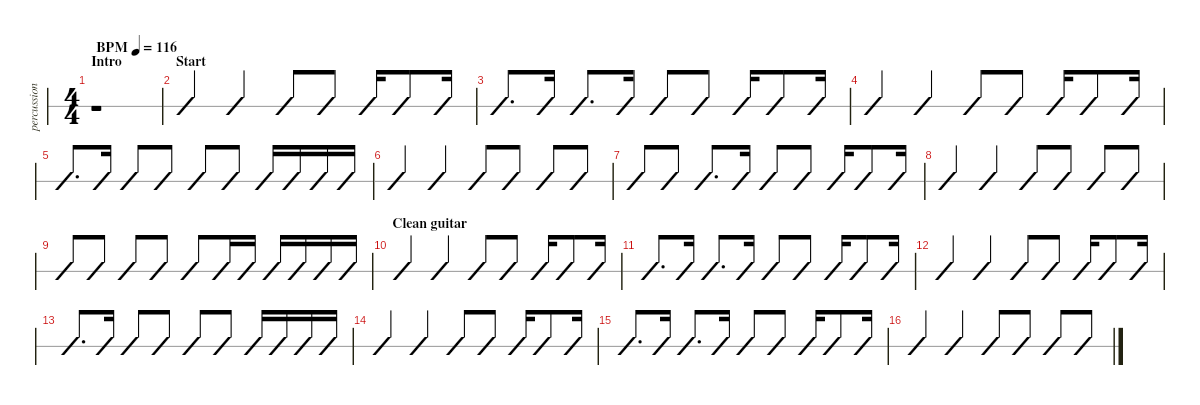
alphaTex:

\defaultSystemsLayout 4
\hideDynamics
\bracketExtendMode nobrackets
\track ("Drums" "percussion") {instrument percussion}
\staff {slash}
\articulation defaults
\voice
\ts (4 4)
\beaming (8 2 2 2 2)
\section ("" "Intro")
\tempo (116 "BPM")
\clef neutral
\ks c
r.1{dy f} |
\section ("" "Start")
("Crash medium (hit)" "Kick (hit) 2" "Crash high (hit)").4 ("Crash medium (hit)" "Snare (hit) 2").4 "Crash medium (hit)".8 "Kick (hit) 2".8 ("Crash medium (hit)" "Snare (hit) 2").16 "Kick (hit) 2".8 "Kick (hit) 2".16 |
("Crash medium (hit)" "Kick (hit) 2").8{d} "Kick (hit) 2".16 ("Crash medium (hit)" "Snare (hit) 2").8{d} "Snare (hit) 2".16 "Crash medium (hit)".8 "Kick (hit) 2".8 ("Crash medium (hit)" "Snare (hit) 2").16 "Kick (hit) 2".8 "Kick (hit) 2".16 |
("Crash medium (hit)" "Kick (hit) 2" "Crash high (hit)").4 ("Crash medium (hit)" "Snare (hit) 2").4 "Crash medium (hit)".8 "Kick (hit) 2".8 ("Crash medium (hit)" "Snare (hit) 2").16 "Kick (hit) 2".8 "Kick (hit) 2".16 |
("Crash medium (hit)" "Kick (hit) 2").8{d} "Kick (hit) 2".16 ("Crash medium (hit)" "Snare (hit) 2").8 ("Kick (hit) 2" "Splash (hit)").8 "Crash medium (hit)".8 "Kick (hit) 2".8 ("Crash medium (hit)" "Snare (hit) 2").16 "Kick (hit) 2".16 "Snare (hit) 2".16 "Snare (hit) 2".16 |
("Crash medium (hit)" "Kick (hit) 2").4 ("Crash medium (hit)" "Snare (hit) 2").4 ("Crash medium (hit)" "Kick (hit) 2").8 "Kick (hit) 2".8 ("Crash medium (hit)" "Snare (hit) 2").8 "Kick (hit) 2".8 |
"Crash medium (hit)".8 "Kick (hit) 2".8 ("Crash medium (hit)" "Snare (hit) 2").8{d} "Snare (hit) 2".16 "Crash medium (hit)".8 "Kick (hit) 2".8 ("Crash medium (hit)" "Snare (hit) 2").16 "Kick (hit) 2".8 "Kick (hit) 2".16 |
("Crash medium (hit)" "Kick (hit) 2" "Crash high (hit)").4 ("Crash medium (hit)" "Snare (hit) 2").4 "Crash medium (hit)".8 "Kick (hit) 2".8 ("Crash medium (hit)" "Snare (hit) 2").8 "Kick (hit) 2".8 |
"Crash medium (hit)".8 "Kick (hit) 2".8 ("Crash medium (hit)" "Snare (hit) 2").8 ("Kick (hit) 2" "Splash (hit)").8 "Hi-Hat (open)".8 ("Low Floor Tom (hit)" "Very Low Tom (hit)").16 "Kick (hit) 2".16 ("China (hit)" "Snare (hit) 2").16 "Kick (hit) 2".16 "Low Floor Tom (hit)".16 "Low Floor Tom (hit)".16 |
\section ("" "Clean guitar ")
("Crash medium (hit)" "Kick (hit) 2" "Crash high (hit)").4 ("Hi-Hat (open)" "Snare (hit) 2").4 "Hi-Hat (open)".8 "Kick (hit) 2".8 ("Hi-Hat (open)" "Snare (hit) 2").16 "Kick (hit) 2".8 "Kick (hit) 2".16 |
("Hi-Hat (open)" "Kick (hit) 2").8{d} "Kick (hit) 2".16 ("Hi-Hat (open)" "Snare (hit) 2").8{d} "Snare (hit) 2".16 "Hi-Hat (open)".8 "Kick (hit) 2".8 ("Hi-Hat (open)" "Snare (hit) 2").16 "Kick (hit) 2".8 "Kick (hit) 2".16 |
("Crash medium (hit)" "Kick (hit) 2" "Crash high (hit)").4 ("Hi-Hat (open)" "Snare (hit) 2").4 "Hi-Hat (open)".8 "Kick (hit) 2".8 ("Hi-Hat (open)" "Snare (hit) 2").16 "Kick (hit) 2".8 "Kick (hit) 2".16 |
("Hi-Hat (open)" "Kick (hit) 2").8{d} "Kick (hit) 2".16 ("Hi-Hat (open)" "Snare (hit) 2").8 "Kick (hit) 2".8 "Hi-Hat (open)".8 "Kick (hit) 2".8 ("Hi-Hat (open)" "Snare (hit) 2").16 "Kick (hit) 2".16 "Snare (hit) 2".16 "Snare (hit) 2".16 |
("Crash high (hit)" "Kick (hit) 2").4 ("Hi-Hat (open)" "Snare (hit) 2").4 "Hi-Hat (open)".8 "Kick (hit) 2".8 ("Hi-Hat (open)" "Snare (hit) 2").16 "Kick (hit) 2".8 "Kick (hit) 2".16 |
("Hi-Hat (open)" "Kick (hit) 2").8{d} "Kick (hit) 2".16 ("Hi-Hat (open)" "Snare (hit) 2").8{d} "Snare (hit) 2".16 "Hi-Hat (open)".8 "Kick (hit) 2".8 ("Hi-Hat (open)" "Snare (hit) 2").16 "Kick (hit) 2".8 "Kick (hit) 2".16 |
("Hi-Hat (open)" "Kick (hit) 2").4 ("Hi-Hat (open)" "Snare (hit) 2").4 "Hi-Hat (open)".8 "Kick (hit) 2".8 ("Hi-Hat (open)" "Snare (hit) 2").8 ("Crash medium (hit)" "Kick (hit) 2").8
\voice
\clef neutral
\ottava regular
\simile none
\ks c
r.4{dy mf} r.4 r.4 r.4 |
r.4 r.4 r.4 r.4 |
r.4 r.4 r.4 r.4 |
r.4 r.4 r.4 r.4 |
r.4 r.4 r.4 r.4 |
r.4 r.4 r.4 r.4 |
r.4 r.4 r.4 r.4 |
r.4 r.4 r.4 r.4 |
r.4 r.4 r.4 r.4 |
r.4 r.4 r.4 r.4 |
r.4 r.4 r.4 r.4 |
r.4 r.4 r.4 r.4 |
r.4 r.4 r.4 r.4 |
r.4 r.4 r.4 r.4 |
r.4 r.4 r.4 r.4 |
r.4 r.4 r.4 r.4
